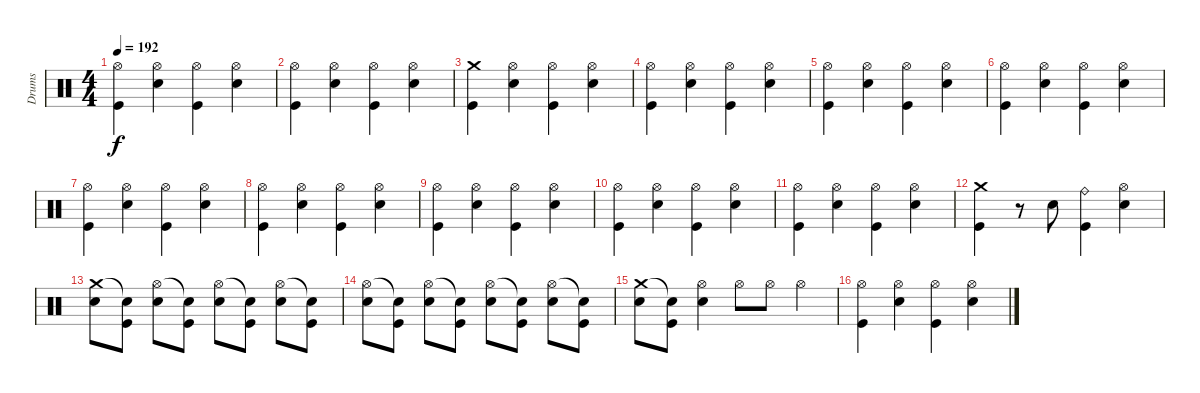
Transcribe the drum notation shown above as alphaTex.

\track ("Drums" "Drums") {instrument percussion}
\staff {score}
\articulation defaults
\ts (4 4)
\tempo 192
\clef neutral
\ks c
("Kick (hit)" "Hi-Hat (open)").4{dy f} ("Snare (hit) 2" "Hi-Hat (open)").4 ("Kick (hit)" "Hi-Hat (open)").4 ("Snare (hit) 2" "Hi-Hat (open)").4 |
("Kick (hit)" "Hi-Hat (open)").4 ("Snare (hit) 2" "Hi-Hat (open)").4 ("Kick (hit)" "Hi-Hat (open)").4 ("Snare (hit) 2" "Hi-Hat (open)").4 |
("Kick (hit)" "Crash medium (hit)").4 ("Snare (hit) 2" "Hi-Hat (open)").4 ("Kick (hit)" "Hi-Hat (open)").4 ("Snare (hit) 2" "Hi-Hat (open)").4 |
("Kick (hit)" "Hi-Hat (open)").4 ("Snare (hit) 2" "Hi-Hat (open)").4 ("Kick (hit)" "Hi-Hat (open)").4 ("Snare (hit) 2" "Hi-Hat (open)").4 |
("Kick (hit)" "Hi-Hat (open)").4 ("Snare (hit) 2" "Hi-Hat (open)").4 ("Kick (hit)" "Hi-Hat (open)").4 ("Snare (hit) 2" "Hi-Hat (open)").4 |
("Kick (hit)" "Hi-Hat (open)").4 ("Snare (hit) 2" "Hi-Hat (open)").4 ("Kick (hit)" "Hi-Hat (open)").4 ("Snare (hit) 2" "Hi-Hat (open)").4 |
("Kick (hit)" "Hi-Hat (open)").4 ("Snare (hit) 2" "Hi-Hat (open)").4 ("Kick (hit)" "Hi-Hat (open)").4 ("Snare (hit) 2" "Hi-Hat (open)").4 |
("Kick (hit)" "Hi-Hat (open)").4 ("Snare (hit) 2" "Hi-Hat (open)").4 ("Kick (hit)" "Hi-Hat (open)").4 ("Snare (hit) 2" "Hi-Hat (open)").4 |
("Kick (hit)" "Hi-Hat (open)").4 ("Snare (hit) 2" "Hi-Hat (open)").4 ("Kick (hit)" "Hi-Hat (open)").4 ("Snare (hit) 2" "Hi-Hat (open)").4 |
("Kick (hit)" "Hi-Hat (open)").4 ("Snare (hit) 2" "Hi-Hat (open)").4 ("Kick (hit)" "Hi-Hat (open)").4 ("Snare (hit) 2" "Hi-Hat (open)").4 |
("Kick (hit)" "Hi-Hat (open)").4 ("Snare (hit) 2" "Hi-Hat (open)").4 ("Kick (hit)" "Hi-Hat (open)").4 ("Snare (hit) 2" "Hi-Hat (open)").4 |
("Kick (hit)" "Crash medium (hit)").4 r.8 "Snare (hit) 2".8 ("Ride (bell)" "Kick (hit)").4 ("Hi-Hat (open)" "Snare (hit) 2").4 |
("Snare (hit) 2" "Crash medium (hit)").8 ("Kick (hit)" "Snare (hit)"{t}).8 ("Snare (hit) 2" "Hi-Hat (open)").8 ("Kick (hit)" "Snare (hit)"{t}).8 ("Snare (hit) 2" "Hi-Hat (open)").8 ("Kick (hit)" "Snare (hit)"{t}).8 ("Snare (hit) 2" "Hi-Hat (open)").8 ("Kick (hit)" "Snare (hit)"{t}).8 |
("Snare (hit) 2" "Hi-Hat (open)").8 ("Kick (hit)" "Snare (hit)"{t}).8 ("Snare (hit) 2" "Hi-Hat (open)").8 ("Kick (hit)" "Snare (hit)"{t}).8 ("Snare (hit) 2" "Hi-Hat (open)").8 ("Kick (hit)" "Snare (hit)"{t}).8 ("Snare (hit) 2" "Hi-Hat (open)").8 ("Kick (hit)" "Snare (hit)"{t}).8 |
("Snare (hit) 2" "Crash medium (hit)").8 ("Kick (hit)" "Snare (hit)"{t}).8 ("Snare (hit) 2" "Hi-Hat (open)").4 "Hi-Hat (open)".8 "Hi-Hat (open)".8 "Hi-Hat (open)".4 |
("Kick (hit)" "Hi-Hat (open)").4 ("Snare (hit) 2" "Hi-Hat (open)").4 ("Kick (hit)" "Hi-Hat (open)").4 ("Snare (hit) 2" "Hi-Hat (open)").4
